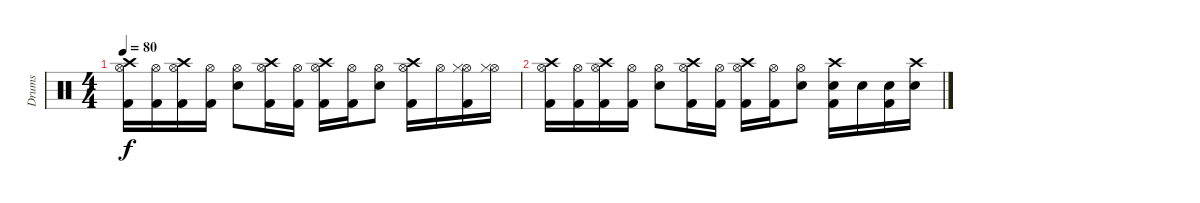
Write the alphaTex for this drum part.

\track ("Drums" "Drums") {instrument percussion}
\staff {score}
\articulation defaults
\ts (4 4)
\tempo 80
\clef neutral
\ks c
("Crash high (hit)" "Hi-Hat (open)" "Kick (hit) 2").16{dy f} ("Hi-Hat (open)" "Kick (hit) 2").16 ("Crash high (hit)" "Hi-Hat (open)" "Kick (hit) 2").16 ("Hi-Hat (open)" "Kick (hit) 2").16 ("Hi-Hat (open)" "Snare (hit) 2").8 ("Crash high (hit)" "Hi-Hat (open)" "Kick (hit) 2").16 ("Hi-Hat (open)" "Kick (hit) 2").16 ("Crash high (hit)" "Hi-Hat (open)" "Kick (hit) 2").16 ("Hi-Hat (open)" "Kick (hit) 2").16 ("Hi-Hat (open)" "Snare (hit) 2").8 ("Crash high (hit)" "Hi-Hat (open)" "Kick (hit) 2").16 "Hi-Hat (open)".16 ("Hi-Hat (open)" "Hi-Hat (closed)" "Kick (hit) 2").16 ("Hi-Hat (open)" "Hi-Hat (closed)").16 |
("Crash high (hit)" "Hi-Hat (open)" "Kick (hit) 2").16 ("Hi-Hat (open)" "Kick (hit) 2").16 ("Crash high (hit)" "Hi-Hat (open)" "Kick (hit) 2").16 ("Hi-Hat (open)" "Kick (hit) 2").16 ("Hi-Hat (open)" "Snare (hit) 2").8 ("Crash high (hit)" "Hi-Hat (open)" "Kick (hit) 2").16 ("Hi-Hat (open)" "Kick (hit) 2").16 ("Crash high (hit)" "Hi-Hat (open)" "Kick (hit) 2").16 ("Hi-Hat (open)" "Kick (hit) 2").16 ("Hi-Hat (open)" "Snare (hit) 2").8 ("Crash high (hit)" "Snare (hit) 2" "Kick (hit) 2").16 "Snare (hit) 2".16 ("Snare (hit) 2" "Kick (hit) 2").16 ("Crash high (hit)" "Snare (hit) 2").16
